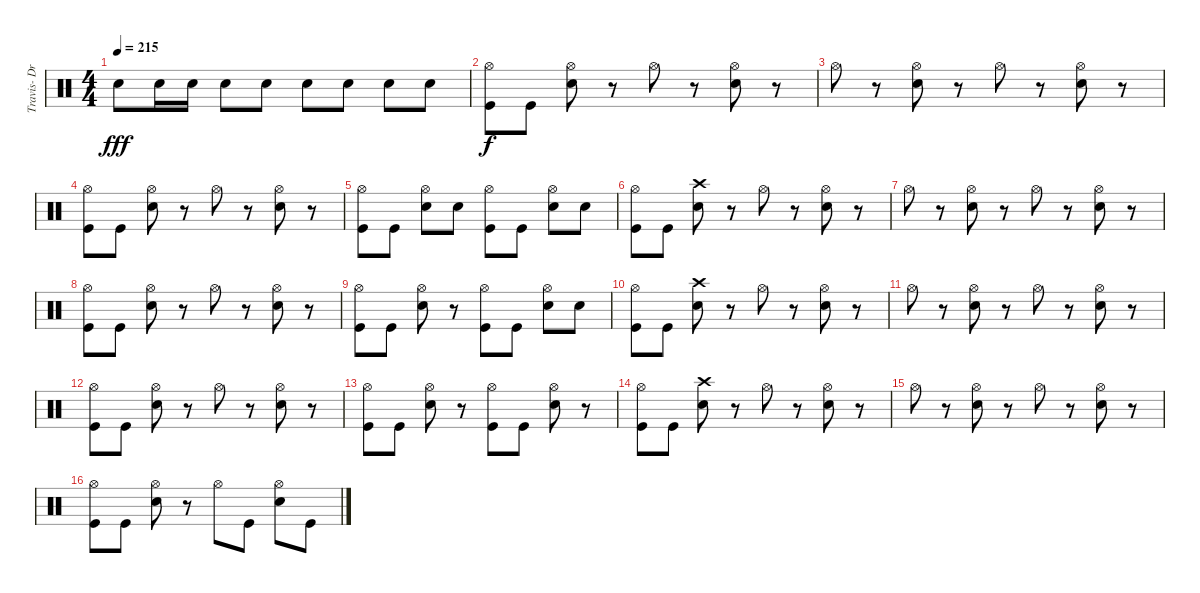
\track ("Travis- Drums" "Travis- Dr") {instrument percussion}
\staff {score}
\articulation defaults
\ts (4 4)
\tempo 215
\clef neutral
\ks c "Electric Snare (hit)".8{dy fff} "Electric Snare (hit)".16 "Electric Snare (hit)".16 "Electric Snare (hit)".8 "Electric Snare (hit)".8 "Electric Snare (hit)".8 "Electric Snare (hit)".8 "Electric Snare (hit)".8 "Electric Snare (hit)".8
|
("Hi-Hat (open)" "Kick (hit)").8{dy f} "Kick (hit)".8 ("Hi-Hat (open)" "Electric Snare (hit)").8 r.8 "Hi-Hat (open)".8 r.8 ("Hi-Hat (open)" "Electric Snare (hit)").8 r.8 |
"Hi-Hat (open)".8 r.8 ("Hi-Hat (open)" "Electric Snare (hit)").8 r.8 "Hi-Hat (open)".8 r.8 ("Hi-Hat (open)" "Electric Snare (hit)").8 r.8 |
("Hi-Hat (open)" "Kick (hit)").8 "Kick (hit)".8 ("Hi-Hat (open)" "Electric Snare (hit)").8 r.8 "Hi-Hat (open)".8 r.8 ("Hi-Hat (open)" "Electric Snare (hit)").8 r.8 |
("Hi-Hat (open)" "Kick (hit)").8 "Kick (hit)".8 ("Hi-Hat (open)" "Electric Snare (hit)").8 "Electric Snare (hit)".8 ("Hi-Hat (open)" "Kick (hit)").8 "Kick (hit)".8 ("Hi-Hat (open)" "Electric Snare (hit)").8 "Electric Snare (hit)".8 |
("Hi-Hat (open)" "Kick (hit)").8 "Kick (hit)".8 ("Crash high (hit)" "Electric Snare (hit)").8 r.8 "Hi-Hat (open)".8 r.8 ("Hi-Hat (open)" "Electric Snare (hit)").8 r.8 |
"Hi-Hat (open)".8 r.8 ("Hi-Hat (open)" "Electric Snare (hit)").8 r.8 "Hi-Hat (open)".8 r.8 ("Electric Snare (hit)" "Hi-Hat (open)").8 r.8 |
("Hi-Hat (open)" "Kick (hit)").8 "Kick (hit)".8 ("Hi-Hat (open)" "Electric Snare (hit)").8 r.8 "Hi-Hat (open)".8 r.8 ("Hi-Hat (open)" "Electric Snare (hit)").8 r.8 |
("Hi-Hat (open)" "Kick (hit)").8 "Kick (hit)".8 ("Hi-Hat (open)" "Electric Snare (hit)").8 r.8 ("Hi-Hat (open)" "Kick (hit)").8 "Kick (hit)".8 ("Hi-Hat (open)" "Electric Snare (hit)").8 "Electric Snare (hit)".8 |
("Hi-Hat (open)" "Kick (hit)").8 "Kick (hit)".8 ("Crash high (hit)" "Electric Snare (hit)").8 r.8 "Hi-Hat (open)".8 r.8 ("Hi-Hat (open)" "Electric Snare (hit)").8 r.8 |
"Hi-Hat (open)".8 r.8 ("Electric Snare (hit)" "Hi-Hat (open)").8 r.8 "Hi-Hat (open)".8 r.8 ("Electric Snare (hit)" "Hi-Hat (open)").8 r.8 |
("Hi-Hat (open)" "Kick (hit)").8 "Kick (hit)".8 ("Hi-Hat (open)" "Electric Snare (hit)").8 r.8 "Hi-Hat (open)".8 r.8 ("Hi-Hat (open)" "Electric Snare (hit)").8 r.8 |
("Hi-Hat (open)" "Kick (hit)").8 "Kick (hit)".8 ("Hi-Hat (open)" "Electric Snare (hit)").8 r.8 ("Hi-Hat (open)" "Kick (hit)").8 "Kick (hit)".8 ("Hi-Hat (open)" "Electric Snare (hit)").8 r.8 |
("Hi-Hat (open)" "Kick (hit)").8 "Kick (hit)".8 ("Crash high (hit)" "Electric Snare (hit)").8 r.8 "Hi-Hat (open)".8 r.8 ("Hi-Hat (open)" "Electric Snare (hit)").8 r.8 |
"Hi-Hat (open)".8 r.8 ("Hi-Hat (open)" "Electric Snare (hit)").8 r.8 "Hi-Hat (open)".8 r.8 ("Hi-Hat (open)" "Electric Snare (hit)").8 r.8 |
("Hi-Hat (open)" "Kick (hit)").8 "Kick (hit)".8 ("Hi-Hat (open)" "Electric Snare (hit)").8 r.8 "Hi-Hat (open)".8 "Kick (hit)".8 ("Hi-Hat (open)" "Electric Snare (hit)").8 "Kick (hit)".8
